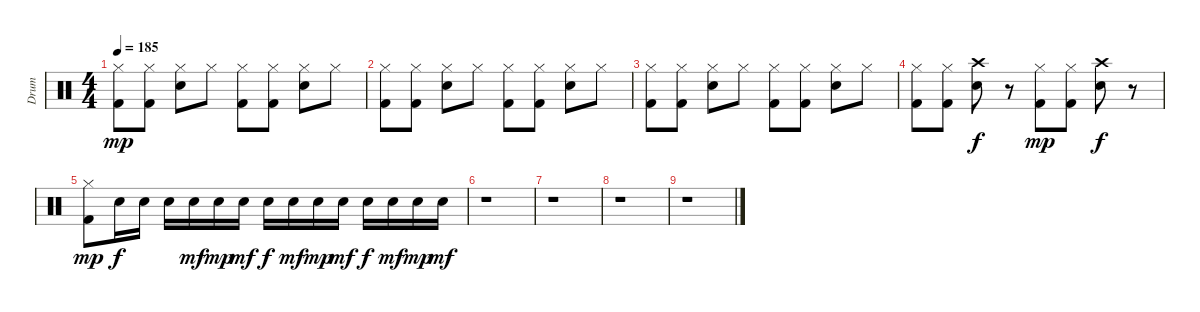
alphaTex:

\track ("Drum" "Drum") {instrument percussion}
\staff {score}
\articulation defaults
\ts (4 4)
\tempo 185
\clef neutral
\ks c
("Hi-Hat (closed)" "Kick (hit) 2").8{dy mp} ("Hi-Hat (closed)" "Kick (hit) 2").8 ("Hi-Hat (closed)" "Electric Snare (hit)").8 "Hi-Hat (closed)".8 ("Hi-Hat (closed)" "Kick (hit) 2").8 ("Hi-Hat (closed)" "Kick (hit) 2").8 ("Hi-Hat (closed)" "Electric Snare (hit)").8 "Hi-Hat (closed)".8 |
("Hi-Hat (closed)" "Kick (hit) 2").8 ("Hi-Hat (closed)" "Kick (hit) 2").8 ("Hi-Hat (closed)" "Electric Snare (hit)").8 "Hi-Hat (closed)".8 ("Hi-Hat (closed)" "Kick (hit) 2").8 ("Hi-Hat (closed)" "Kick (hit) 2").8 ("Hi-Hat (closed)" "Electric Snare (hit)").8 "Hi-Hat (closed)".8 |
("Hi-Hat (closed)" "Kick (hit) 2").8 ("Hi-Hat (closed)" "Kick (hit) 2").8 ("Hi-Hat (closed)" "Electric Snare (hit)").8 "Hi-Hat (closed)".8 ("Hi-Hat (closed)" "Kick (hit) 2").8 ("Hi-Hat (closed)" "Kick (hit) 2").8 ("Hi-Hat (closed)" "Electric Snare (hit)").8 "Hi-Hat (closed)".8 |
("Hi-Hat (closed)" "Kick (hit) 2").8 ("Hi-Hat (closed)" "Kick (hit) 2").8 ("Crash high (hit)" "Electric Snare (hit)").8{dy f} r.8 ("Hi-Hat (closed)" "Kick (hit) 2").8{dy mp} ("Hi-Hat (closed)" "Kick (hit) 2").8 ("Crash high (hit)" "Electric Snare (hit)").8{dy f} r.8 |
("Hi-Hat (closed)" "Kick (hit) 2").8{dy mp} "Electric Snare (hit)".16{dy f} "Electric Snare (hit)".16 "Electric Snare (hit)".16 "Electric Snare (hit)".16{dy mf} "Electric Snare (hit)".16{dy mp} "Electric Snare (hit)".16{dy mf} "Electric Snare (hit)".16{dy f} "Electric Snare (hit)".16{dy mf} "Electric Snare (hit)".16{dy mp} "Electric Snare (hit)".16{dy mf} "Electric Snare (hit)".16{dy f} "Electric Snare (hit)".16{dy mf} "Electric Snare (hit)".16{dy mp} "Electric Snare (hit)".16{dy mf} |
r.1 |
r.1 |
r.1 |
r.1
